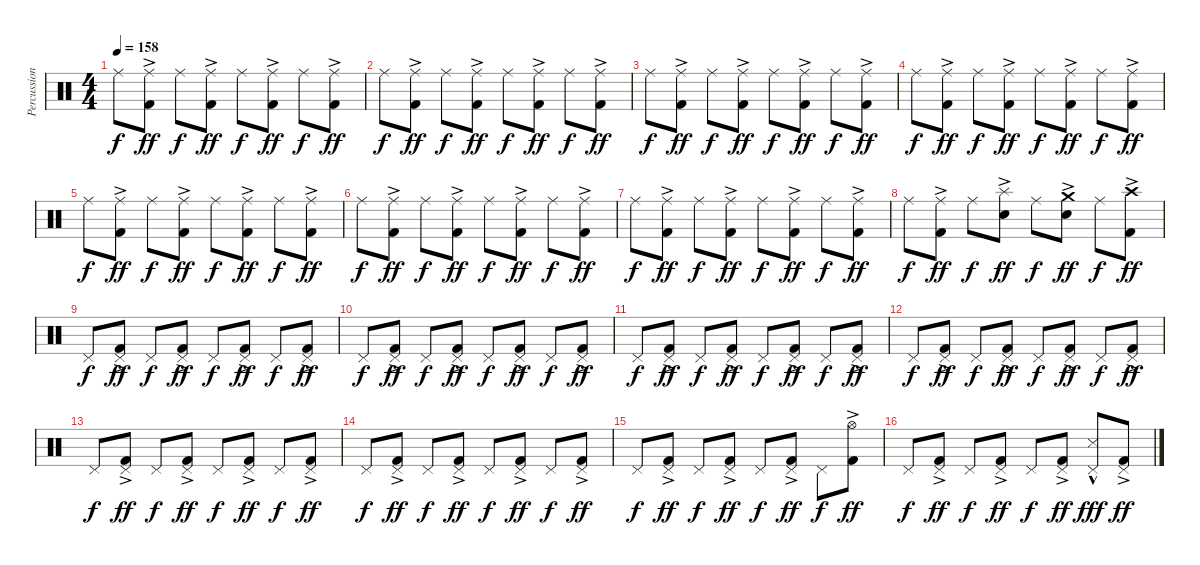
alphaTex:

\track ("Percussion" "Percussion") {instrument percussion}
\staff {score}
\articulation defaults
\ts (4 4)
\tempo 158
\clef neutral
\ks c "Ride (middle)".8{dy f}
("Ride (middle)"{ac} "Kick (hit) 2").8{dy ff} "Ride (middle)".8{dy f} ("Ride (middle)"{ac} "Kick (hit) 2").8{dy ff} "Ride (middle)".8{dy f} ("Ride (middle)"{ac} "Kick (hit) 2").8{dy ff} "Ride (middle)".8{dy f} ("Ride (middle)"{ac} "Kick (hit) 2").8{dy ff} |
"Ride (middle)".8{dy f} ("Ride (middle)"{ac} "Kick (hit) 2").8{dy ff} "Ride (middle)".8{dy f} ("Ride (middle)"{ac} "Kick (hit) 2").8{dy ff} "Ride (middle)".8{dy f} ("Ride (middle)"{ac} "Kick (hit) 2").8{dy ff} "Ride (middle)".8{dy f} ("Ride (middle)"{ac} "Kick (hit) 2").8{dy ff} |
"Ride (middle)".8{dy f} ("Ride (middle)"{ac} "Kick (hit) 2").8{dy ff} "Ride (middle)".8{dy f} ("Ride (middle)"{ac} "Kick (hit) 2").8{dy ff} "Ride (middle)".8{dy f} ("Ride (middle)"{ac} "Kick (hit) 2").8{dy ff} "Ride (middle)".8{dy f} ("Ride (middle)"{ac} "Kick (hit) 2").8{dy ff} |
"Ride (middle)".8{dy f} ("Ride (middle)"{ac} "Kick (hit) 2").8{dy ff} "Ride (middle)".8{dy f} ("Ride (middle)"{ac} "Kick (hit) 2").8{dy ff} "Ride (middle)".8{dy f} ("Ride (middle)"{ac} "Kick (hit) 2").8{dy ff} "Ride (middle)".8{dy f} ("Ride (middle)"{ac} "Kick (hit) 2").8{dy ff} |
"Ride (middle)".8{dy f} ("Ride (middle)"{ac} "Kick (hit) 2").8{dy ff} "Ride (middle)".8{dy f} ("Ride (middle)"{ac} "Kick (hit) 2").8{dy ff} "Ride (middle)".8{dy f} ("Ride (middle)"{ac} "Kick (hit) 2").8{dy ff} "Ride (middle)".8{dy f} ("Ride (middle)"{ac} "Kick (hit) 2").8{dy ff} |
"Ride (middle)".8{dy f} ("Ride (middle)"{ac} "Kick (hit) 2").8{dy ff} "Ride (middle)".8{dy f} ("Ride (middle)"{ac} "Kick (hit) 2").8{dy ff} "Ride (middle)".8{dy f} ("Ride (middle)"{ac} "Kick (hit) 2").8{dy ff} "Ride (middle)".8{dy f} ("Ride (middle)"{ac} "Kick (hit) 2").8{dy ff} |
"Ride (middle)".8{dy f} ("Ride (middle)"{ac} "Kick (hit) 2").8{dy ff} "Ride (middle)".8{dy f} ("Ride (middle)"{ac} "Kick (hit) 2").8{dy ff} "Ride (middle)".8{dy f} ("Ride (middle)"{ac} "Kick (hit) 2").8{dy ff} "Ride (middle)".8{dy f} ("Ride (middle)"{ac} "Kick (hit) 2").8{dy ff} |
"Ride (middle)".8{dy f} ("Ride (middle)"{ac} "Kick (hit) 2").8{dy ff} "Ride (middle)".8{dy f} ("Splash (hit)"{ac} "Electric Snare (hit)").8{dy ff} "Ride (middle)".8{dy f} ("Crash medium (hit)"{ac} "Electric Snare (hit)").8{dy ff} "Ride (middle)".8{dy f} ("Crash high (hit)"{ac} "Kick (hit) 2").8{dy ff} |
"Pedal Hi-Hat (hit)".8{dy f} ("Pedal Hi-Hat (hit)"{ac} "Kick (hit) 2").8{dy ff} "Pedal Hi-Hat (hit)".8{dy f} ("Pedal Hi-Hat (hit)"{ac} "Kick (hit) 2").8{dy ff} "Pedal Hi-Hat (hit)".8{dy f} ("Pedal Hi-Hat (hit)"{ac} "Kick (hit) 2").8{dy ff} "Pedal Hi-Hat (hit)".8{dy f} ("Pedal Hi-Hat (hit)"{ac} "Kick (hit) 2").8{dy ff} |
"Pedal Hi-Hat (hit)".8{dy f} ("Pedal Hi-Hat (hit)"{ac} "Kick (hit) 2").8{dy ff} "Pedal Hi-Hat (hit)".8{dy f} ("Pedal Hi-Hat (hit)"{ac} "Kick (hit) 2").8{dy ff} "Pedal Hi-Hat (hit)".8{dy f} ("Pedal Hi-Hat (hit)"{ac} "Kick (hit) 2").8{dy ff} "Pedal Hi-Hat (hit)".8{dy f} ("Pedal Hi-Hat (hit)"{ac} "Kick (hit) 2").8{dy ff} |
"Pedal Hi-Hat (hit)".8{dy f} ("Pedal Hi-Hat (hit)"{ac} "Kick (hit) 2").8{dy ff} "Pedal Hi-Hat (hit)".8{dy f} ("Pedal Hi-Hat (hit)"{ac} "Kick (hit) 2").8{dy ff} "Pedal Hi-Hat (hit)".8{dy f} ("Pedal Hi-Hat (hit)"{ac} "Kick (hit) 2").8{dy ff} "Pedal Hi-Hat (hit)".8{dy f} ("Pedal Hi-Hat (hit)"{ac} "Kick (hit) 2").8{dy ff} |
"Pedal Hi-Hat (hit)".8{dy f} ("Pedal Hi-Hat (hit)"{ac} "Kick (hit) 2").8{dy ff} "Pedal Hi-Hat (hit)".8{dy f} ("Pedal Hi-Hat (hit)"{ac} "Kick (hit) 2").8{dy ff} "Pedal Hi-Hat (hit)".8{dy f} ("Pedal Hi-Hat (hit)"{ac} "Kick (hit) 2").8{dy ff} "Pedal Hi-Hat (hit)".8{dy f} ("Pedal Hi-Hat (hit)"{ac} "Kick (hit) 2").8{dy ff} |
"Pedal Hi-Hat (hit)".8{dy f} ("Pedal Hi-Hat (hit)"{ac} "Kick (hit) 2").8{dy ff} "Pedal Hi-Hat (hit)".8{dy f} ("Pedal Hi-Hat (hit)"{ac} "Kick (hit) 2").8{dy ff} "Pedal Hi-Hat (hit)".8{dy f} ("Pedal Hi-Hat (hit)"{ac} "Kick (hit) 2").8{dy ff} "Pedal Hi-Hat (hit)".8{dy f} ("Pedal Hi-Hat (hit)"{ac} "Kick (hit) 2").8{dy ff} |
"Pedal Hi-Hat (hit)".8{dy f} ("Pedal Hi-Hat (hit)"{ac} "Kick (hit) 2").8{dy ff} "Pedal Hi-Hat (hit)".8{dy f} ("Pedal Hi-Hat (hit)"{ac} "Kick (hit) 2").8{dy ff} "Pedal Hi-Hat (hit)".8{dy f} ("Pedal Hi-Hat (hit)"{ac} "Kick (hit) 2").8{dy ff} "Pedal Hi-Hat (hit)".8{dy f} ("Pedal Hi-Hat (hit)"{ac} "Kick (hit) 2").8{dy ff} |
"Pedal Hi-Hat (hit)".8{dy f} ("Pedal Hi-Hat (hit)"{ac} "Kick (hit) 2").8{dy ff} "Pedal Hi-Hat (hit)".8{dy f} ("Pedal Hi-Hat (hit)"{ac} "Kick (hit) 2").8{dy ff} "Pedal Hi-Hat (hit)".8{dy f} ("Pedal Hi-Hat (hit)"{ac} "Kick (hit) 2").8{dy ff} "Pedal Hi-Hat (hit)".8{dy f} ("Hi-Hat (open)"{ac} "Kick (hit) 2").8{dy ff} |
"Pedal Hi-Hat (hit)".8{dy f} ("Pedal Hi-Hat (hit)"{ac} "Kick (hit) 2").8{dy ff} "Pedal Hi-Hat (hit)".8{dy f} ("Pedal Hi-Hat (hit)"{ac} "Kick (hit) 2").8{dy ff} "Pedal Hi-Hat (hit)".8{dy f} ("Pedal Hi-Hat (hit)"{ac} "Kick (hit) 2").8{dy ff} ("Pedal Hi-Hat (hit)" "Snare (side stick) 3"{hac}).8{dy fff} ("Pedal Hi-Hat (hit)"{ac} "Kick (hit) 2").8{dy ff}
